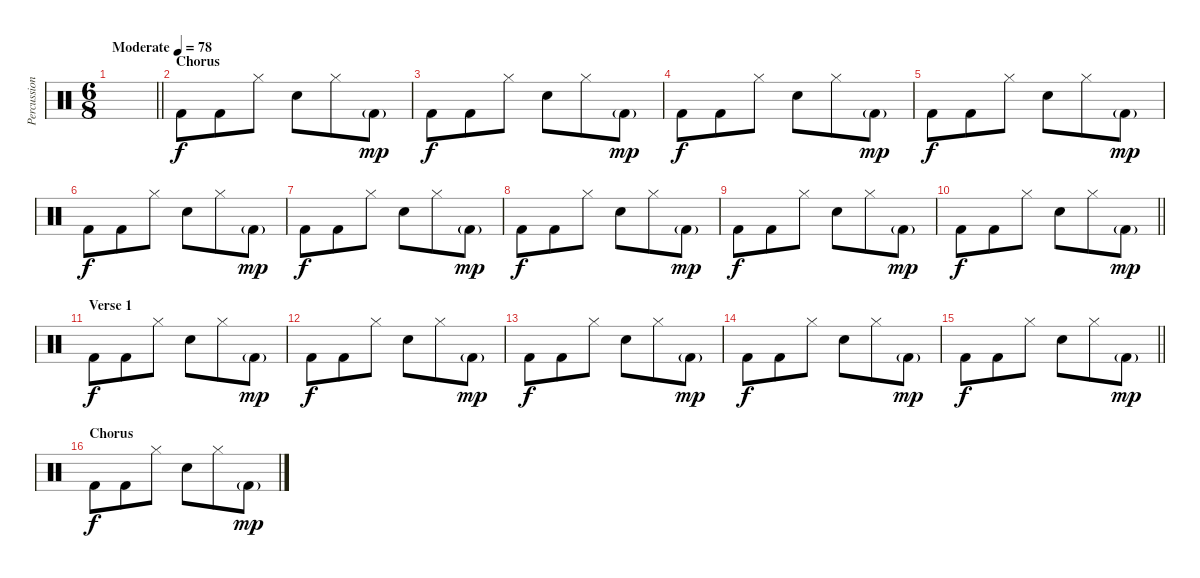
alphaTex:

\track ("Percussion" "Percussion") {instrument percussion}
\staff {score}
\articulation defaults
\ts (6 8)
\tempo (78 "Moderate")
\clef neutral
\barLineRight lightlight
\ks c
|
\section ("" "Chorus")
"Kick (hit) 2".8 "Kick (hit) 2".8 "Hi-Hat (closed)".8 "Snare (hit) 2".8 "Hi-Hat (closed)".8 "Kick (hit) 2"{g}.8{dy mp} |
"Kick (hit) 2".8{dy f} "Kick (hit) 2".8 "Hi-Hat (closed)".8 "Snare (hit) 2".8 "Hi-Hat (closed)".8 "Kick (hit) 2"{g}.8{dy mp} |
"Kick (hit) 2".8{dy f} "Kick (hit) 2".8 "Hi-Hat (closed)".8 "Snare (hit) 2".8 "Hi-Hat (closed)".8 "Kick (hit) 2"{g}.8{dy mp} |
"Kick (hit) 2".8{dy f} "Kick (hit) 2".8 "Hi-Hat (closed)".8 "Snare (hit) 2".8 "Hi-Hat (closed)".8 "Kick (hit) 2"{g}.8{dy mp} |
"Kick (hit) 2".8{dy f} "Kick (hit) 2".8 "Hi-Hat (closed)".8 "Snare (hit) 2".8 "Hi-Hat (closed)".8 "Kick (hit) 2"{g}.8{dy mp} |
"Kick (hit) 2".8{dy f} "Kick (hit) 2".8 "Hi-Hat (closed)".8 "Snare (hit) 2".8 "Hi-Hat (closed)".8 "Kick (hit) 2"{g}.8{dy mp} |
"Kick (hit) 2".8{dy f} "Kick (hit) 2".8 "Hi-Hat (closed)".8 "Snare (hit) 2".8 "Hi-Hat (closed)".8 "Kick (hit) 2"{g}.8{dy mp} |
"Kick (hit) 2".8{dy f} "Kick (hit) 2".8 "Hi-Hat (closed)".8 "Snare (hit) 2".8 "Hi-Hat (closed)".8 "Kick (hit) 2"{g}.8{dy mp} |
\barLineRight lightlight "Kick (hit) 2".8{dy f} "Kick (hit) 2".8 "Hi-Hat (closed)".8 "Snare (hit) 2".8 "Hi-Hat (closed)".8 "Kick (hit) 2"{g}.8{dy mp}
|
\section ("" "Verse 1")
"Kick (hit) 2".8{dy f} "Kick (hit) 2".8 "Hi-Hat (closed)".8 "Snare (hit) 2".8 "Hi-Hat (closed)".8 "Kick (hit) 2"{g}.8{dy mp} |
"Kick (hit) 2".8{dy f} "Kick (hit) 2".8 "Hi-Hat (closed)".8 "Snare (hit) 2".8 "Hi-Hat (closed)".8 "Kick (hit) 2"{g}.8{dy mp} |
"Kick (hit) 2".8{dy f} "Kick (hit) 2".8 "Hi-Hat (closed)".8 "Snare (hit) 2".8 "Hi-Hat (closed)".8 "Kick (hit) 2"{g}.8{dy mp} |
"Kick (hit) 2".8{dy f} "Kick (hit) 2".8 "Hi-Hat (closed)".8 "Snare (hit) 2".8 "Hi-Hat (closed)".8 "Kick (hit) 2"{g}.8{dy mp} |
\barLineRight lightlight "Kick (hit) 2".8{dy f} "Kick (hit) 2".8 "Hi-Hat (closed)".8 "Snare (hit) 2".8 "Hi-Hat (closed)".8 "Kick (hit) 2"{g}.8{dy mp}
|
\section ("" "Chorus")
"Kick (hit) 2".8{dy f} "Kick (hit) 2".8 "Hi-Hat (closed)".8 "Snare (hit) 2".8 "Hi-Hat (closed)".8 "Kick (hit) 2"{g}.8{dy mp}
